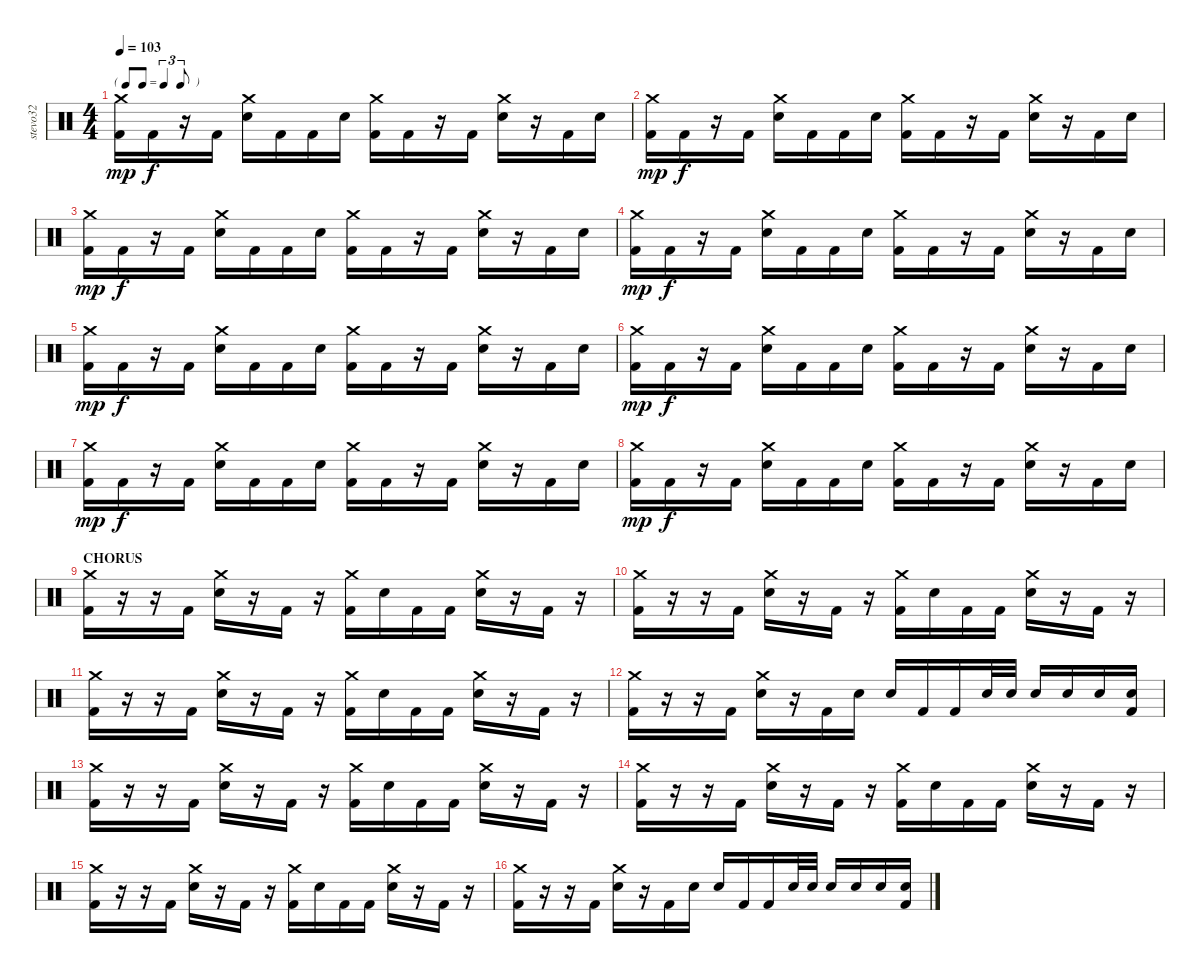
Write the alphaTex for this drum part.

\track ("stevo32" "stevo32") {instrument percussion}
\staff {score}
\articulation defaults
\ts (4 4)
\tf triplet8th
\tempo 103
\clef neutral
\ks c
("Crash medium (hit)" "Kick (hit) 2").16{dy mp} "Kick (hit) 2".16{dy f} r.16 "Kick (hit) 2".16 ("Crash medium (hit)" "Electric Snare (hit)").16 "Kick (hit) 2".16 "Kick (hit) 2".16 "Electric Snare (hit)".16 ("Crash medium (hit)" "Kick (hit) 2").16 "Kick (hit) 2".16 r.16 "Kick (hit) 2".16 ("Crash medium (hit)" "Electric Snare (hit)").16 r.16 "Kick (hit) 2".16 "Electric Snare (hit)".16 |
("Crash medium (hit)" "Kick (hit) 2").16{dy mp} "Kick (hit) 2".16{dy f} r.16 "Kick (hit) 2".16 ("Crash medium (hit)" "Electric Snare (hit)").16 "Kick (hit) 2".16 "Kick (hit) 2".16 "Electric Snare (hit)".16 ("Crash medium (hit)" "Kick (hit) 2").16 "Kick (hit) 2".16 r.16 "Kick (hit) 2".16 ("Crash medium (hit)" "Electric Snare (hit)").16 r.16 "Kick (hit) 2".16 "Electric Snare (hit)".16 |
("Crash medium (hit)" "Kick (hit) 2").16{dy mp} "Kick (hit) 2".16{dy f} r.16 "Kick (hit) 2".16 ("Crash medium (hit)" "Electric Snare (hit)").16 "Kick (hit) 2".16 "Kick (hit) 2".16 "Electric Snare (hit)".16 ("Crash medium (hit)" "Kick (hit) 2").16 "Kick (hit) 2".16 r.16 "Kick (hit) 2".16 ("Crash medium (hit)" "Electric Snare (hit)").16 r.16 "Kick (hit) 2".16 "Electric Snare (hit)".16 |
("Crash medium (hit)" "Kick (hit) 2").16{dy mp} "Kick (hit) 2".16{dy f} r.16 "Kick (hit) 2".16 ("Crash medium (hit)" "Electric Snare (hit)").16 "Kick (hit) 2".16 "Kick (hit) 2".16 "Electric Snare (hit)".16 ("Crash medium (hit)" "Kick (hit) 2").16 "Kick (hit) 2".16 r.16 "Kick (hit) 2".16 ("Crash medium (hit)" "Electric Snare (hit)").16 r.16 "Kick (hit) 2".16 "Electric Snare (hit)".16 |
("Crash medium (hit)" "Kick (hit) 2").16{dy mp} "Kick (hit) 2".16{dy f} r.16 "Kick (hit) 2".16 ("Crash medium (hit)" "Electric Snare (hit)").16 "Kick (hit) 2".16 "Kick (hit) 2".16 "Electric Snare (hit)".16 ("Crash medium (hit)" "Kick (hit) 2").16 "Kick (hit) 2".16 r.16 "Kick (hit) 2".16 ("Crash medium (hit)" "Electric Snare (hit)").16 r.16 "Kick (hit) 2".16 "Electric Snare (hit)".16 |
("Crash medium (hit)" "Kick (hit) 2").16{dy mp} "Kick (hit) 2".16{dy f} r.16 "Kick (hit) 2".16 ("Crash medium (hit)" "Electric Snare (hit)").16 "Kick (hit) 2".16 "Kick (hit) 2".16 "Electric Snare (hit)".16 ("Crash medium (hit)" "Kick (hit) 2").16 "Kick (hit) 2".16 r.16 "Kick (hit) 2".16 ("Crash medium (hit)" "Electric Snare (hit)").16 r.16 "Kick (hit) 2".16 "Electric Snare (hit)".16 |
("Crash medium (hit)" "Kick (hit) 2").16{dy mp} "Kick (hit) 2".16{dy f} r.16 "Kick (hit) 2".16 ("Crash medium (hit)" "Electric Snare (hit)").16 "Kick (hit) 2".16 "Kick (hit) 2".16 "Electric Snare (hit)".16 ("Crash medium (hit)" "Kick (hit) 2").16 "Kick (hit) 2".16 r.16 "Kick (hit) 2".16 ("Crash medium (hit)" "Electric Snare (hit)").16 r.16 "Kick (hit) 2".16 "Electric Snare (hit)".16 |
("Crash medium (hit)" "Kick (hit) 2").16{dy mp} "Kick (hit) 2".16{dy f} r.16 "Kick (hit) 2".16 ("Crash medium (hit)" "Electric Snare (hit)").16 "Kick (hit) 2".16 "Kick (hit) 2".16 "Electric Snare (hit)".16 ("Crash medium (hit)" "Kick (hit) 2").16 "Kick (hit) 2".16 r.16 "Kick (hit) 2".16 ("Crash medium (hit)" "Electric Snare (hit)").16 r.16 "Kick (hit) 2".16 "Electric Snare (hit)".16 |
\section ("" "CHORUS")
("Crash medium (hit)" "Kick (hit) 2").16 r.16 r.16 "Kick (hit) 2".16 ("Crash medium (hit)" "Electric Snare (hit)").16 r.16 "Kick (hit) 2".16 r.16 ("Crash medium (hit)" "Kick (hit) 2").16 "Electric Snare (hit)".16 "Kick (hit) 2".16 "Kick (hit) 2".16 ("Crash medium (hit)" "Electric Snare (hit)").16 r.16 "Kick (hit) 2".16 r.16 |
("Crash medium (hit)" "Kick (hit) 2").16 r.16 r.16 "Kick (hit) 2".16 ("Crash medium (hit)" "Electric Snare (hit)").16 r.16 "Kick (hit) 2".16 r.16 ("Crash medium (hit)" "Kick (hit) 2").16 "Electric Snare (hit)".16 "Kick (hit) 2".16 "Kick (hit) 2".16 ("Crash medium (hit)" "Electric Snare (hit)").16 r.16 "Kick (hit) 2".16 r.16 |
("Crash medium (hit)" "Kick (hit) 2").16 r.16 r.16 "Kick (hit) 2".16 ("Crash medium (hit)" "Electric Snare (hit)").16 r.16 "Kick (hit) 2".16 r.16 ("Crash medium (hit)" "Kick (hit) 2").16 "Electric Snare (hit)".16 "Kick (hit) 2".16 "Kick (hit) 2".16 ("Crash medium (hit)" "Electric Snare (hit)").16 r.16 "Kick (hit) 2".16 r.16 |
("Crash medium (hit)" "Kick (hit) 2").16 r.16 r.16 "Kick (hit) 2".16 ("Crash medium (hit)" "Electric Snare (hit)").16 r.16 "Kick (hit) 2".16 "Electric Snare (hit)".16 "Electric Snare (hit)".16 "Kick (hit) 2".16 "Kick (hit) 2".16 "Electric Snare (hit)".32 "Electric Snare (hit)".32 "Electric Snare (hit)".16 "Electric Snare (hit)".16 "Electric Snare (hit)".16 ("Electric Snare (hit)" "Kick (hit) 2").16 |
("Crash medium (hit)" "Kick (hit) 2").16 r.16 r.16 "Kick (hit) 2".16 ("Crash medium (hit)" "Electric Snare (hit)").16 r.16 "Kick (hit) 2".16 r.16 ("Crash medium (hit)" "Kick (hit) 2").16 "Electric Snare (hit)".16 "Kick (hit) 2".16 "Kick (hit) 2".16 ("Crash medium (hit)" "Electric Snare (hit)").16 r.16 "Kick (hit) 2".16 r.16 |
("Crash medium (hit)" "Kick (hit) 2").16 r.16 r.16 "Kick (hit) 2".16 ("Crash medium (hit)" "Electric Snare (hit)").16 r.16 "Kick (hit) 2".16 r.16 ("Crash medium (hit)" "Kick (hit) 2").16 "Electric Snare (hit)".16 "Kick (hit) 2".16 "Kick (hit) 2".16 ("Crash medium (hit)" "Electric Snare (hit)").16 r.16 "Kick (hit) 2".16 r.16 |
("Crash medium (hit)" "Kick (hit) 2").16 r.16 r.16 "Kick (hit) 2".16 ("Crash medium (hit)" "Electric Snare (hit)").16 r.16 "Kick (hit) 2".16 r.16 ("Crash medium (hit)" "Kick (hit) 2").16 "Electric Snare (hit)".16 "Kick (hit) 2".16 "Kick (hit) 2".16 ("Crash medium (hit)" "Electric Snare (hit)").16 r.16 "Kick (hit) 2".16 r.16 |
("Crash medium (hit)" "Kick (hit) 2").16 r.16 r.16 "Kick (hit) 2".16 ("Crash medium (hit)" "Electric Snare (hit)").16 r.16 "Kick (hit) 2".16 "Electric Snare (hit)".16 "Electric Snare (hit)".16 "Kick (hit) 2".16 "Kick (hit) 2".16 "Electric Snare (hit)".32 "Electric Snare (hit)".32 "Electric Snare (hit)".16 "Electric Snare (hit)".16 "Electric Snare (hit)".16 ("Electric Snare (hit)" "Kick (hit) 2").16
